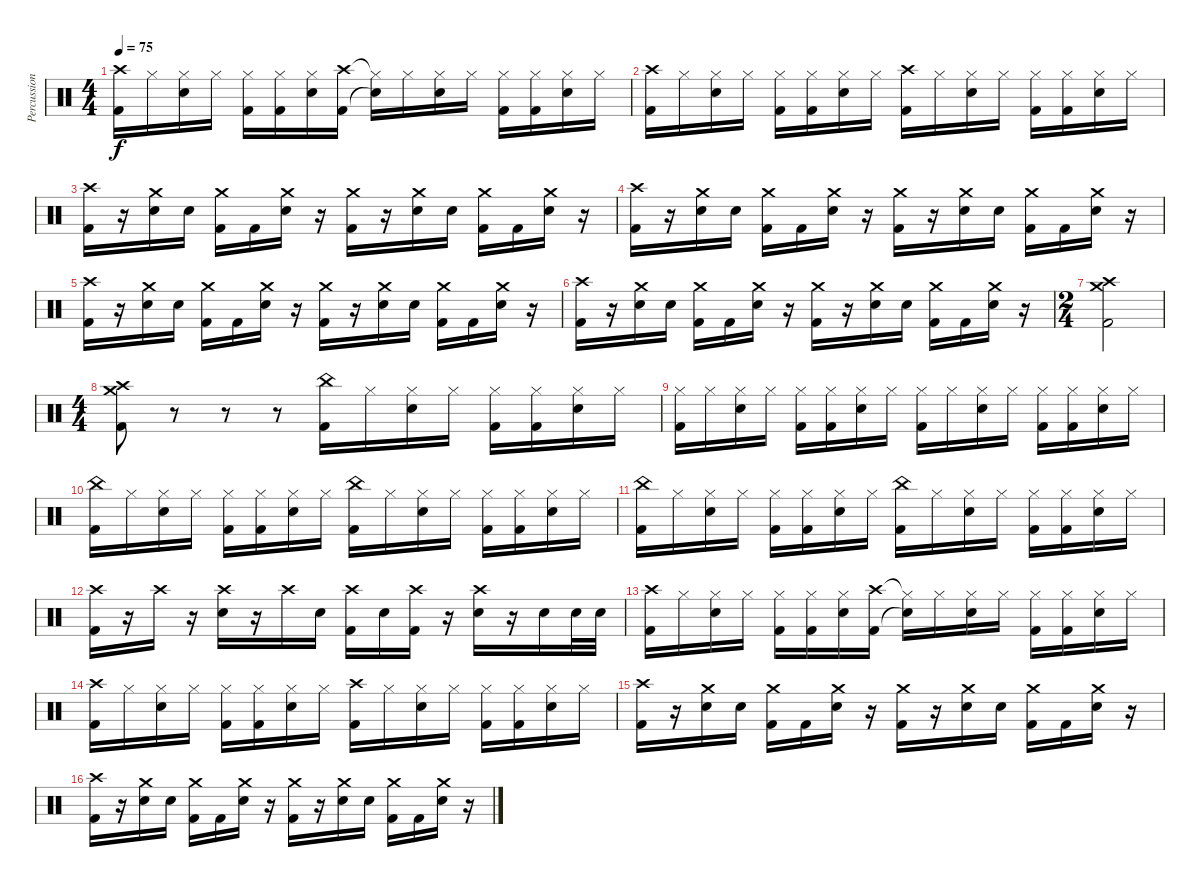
\track ("Percussioni" "Percussion") {instrument percussion}
\staff {score}
\articulation defaults
\ts (4 4)
\tempo 75
\clef neutral
\ks c
("Crash high (hit)" "Kick (hit) 2").16{dy f} "Hi-Hat (closed)".16 ("Hi-Hat (closed)" "Electric Snare (hit)").16 "Hi-Hat (closed)".16 ("Hi-Hat (closed)" "Kick (hit) 2").16 ("Hi-Hat (closed)" "Kick (hit) 2").16 ("Hi-Hat (closed)" "Electric Snare (hit)").16 ("Crash high (hit)" "Kick (hit) 2").16 ("Hi-Hat (closed)"{t} "Snare (hit)"{t}).16 "Hi-Hat (closed)".16 ("Hi-Hat (closed)" "Electric Snare (hit)").16 "Hi-Hat (closed)".16 ("Hi-Hat (closed)" "Kick (hit) 2").16 ("Hi-Hat (closed)" "Kick (hit) 2").16 ("Hi-Hat (closed)" "Electric Snare (hit)").16 "Hi-Hat (closed)".16 |
("Crash high (hit)" "Kick (hit) 2").16 "Hi-Hat (closed)".16 ("Hi-Hat (closed)" "Electric Snare (hit)").16 "Hi-Hat (closed)".16 ("Hi-Hat (closed)" "Kick (hit) 2").16 ("Hi-Hat (closed)" "Kick (hit) 2").16 ("Hi-Hat (closed)" "Electric Snare (hit)").16 "Hi-Hat (closed)".16 ("Crash high (hit)" "Kick (hit) 2").16 "Hi-Hat (closed)".16 ("Hi-Hat (closed)" "Electric Snare (hit)").16 "Hi-Hat (closed)".16 ("Hi-Hat (closed)" "Kick (hit) 2").16 ("Hi-Hat (closed)" "Kick (hit) 2").16 ("Hi-Hat (closed)" "Electric Snare (hit)").16 "Hi-Hat (closed)".16 |
("Crash high (hit)" "Kick (hit) 2").16 r.16 ("Crash medium (hit)" "Electric Snare (hit)").16 "Electric Snare (hit)".16 ("Crash medium (hit)" "Kick (hit) 2").16 "Kick (hit) 2".16 ("Crash medium (hit)" "Electric Snare (hit)").16 r.16 ("Crash medium (hit)" "Kick (hit) 2").16 r.16 ("Crash medium (hit)" "Electric Snare (hit)").16 "Electric Snare (hit)".16 ("Crash medium (hit)" "Kick (hit) 2").16 "Kick (hit) 2".16 ("Crash medium (hit)" "Electric Snare (hit)").16 r.16 |
("Crash high (hit)" "Kick (hit) 2").16 r.16 ("Crash medium (hit)" "Electric Snare (hit)").16 "Electric Snare (hit)".16 ("Crash medium (hit)" "Kick (hit) 2").16 "Kick (hit) 2".16 ("Crash medium (hit)" "Electric Snare (hit)").16 r.16 ("Crash medium (hit)" "Kick (hit) 2").16 r.16 ("Crash medium (hit)" "Electric Snare (hit)").16 "Electric Snare (hit)".16 ("Crash medium (hit)" "Kick (hit) 2").16 "Kick (hit) 2".16 ("Crash medium (hit)" "Electric Snare (hit)").16 r.16 |
("Crash high (hit)" "Kick (hit) 2").16 r.16 ("Crash medium (hit)" "Electric Snare (hit)").16 "Electric Snare (hit)".16 ("Crash medium (hit)" "Kick (hit) 2").16 "Kick (hit) 2".16 ("Crash medium (hit)" "Electric Snare (hit)").16 r.16 ("Crash medium (hit)" "Kick (hit) 2").16 r.16 ("Crash medium (hit)" "Electric Snare (hit)").16 "Electric Snare (hit)".16 ("Crash medium (hit)" "Kick (hit) 2").16 "Kick (hit) 2".16 ("Crash medium (hit)" "Electric Snare (hit)").16 r.16 |
("Crash high (hit)" "Kick (hit) 2").16 r.16 ("Crash medium (hit)" "Electric Snare (hit)").16 "Electric Snare (hit)".16 ("Crash medium (hit)" "Kick (hit) 2").16 "Kick (hit) 2".16 ("Crash medium (hit)" "Electric Snare (hit)").16 r.16 ("Crash medium (hit)" "Kick (hit) 2").16 r.16 ("Crash medium (hit)" "Electric Snare (hit)").16 "Electric Snare (hit)".16 ("Crash medium (hit)" "Kick (hit) 2").16 "Kick (hit) 2".16 ("Crash medium (hit)" "Electric Snare (hit)").16 r.16 |
\ts (2 4)
("Crash medium (hit)" "Crash high (hit)" "Kick (hit) 2").2 |
\ts (4 4)
("Crash high (hit)" "Crash medium (hit)" "Kick (hit) 2").8 r.8 r.8 r.8 ("China (hit)" "Kick (hit) 2").16 "Hi-Hat (closed)".16 ("Hi-Hat (closed)" "Electric Snare (hit)").16 "Hi-Hat (closed)".16 ("Hi-Hat (closed)" "Kick (hit) 2").16 ("Hi-Hat (closed)" "Kick (hit) 2").16 ("Hi-Hat (closed)" "Electric Snare (hit)").16 "Hi-Hat (closed)".16 |
("Hi-Hat (closed)" "Kick (hit) 2").16 "Hi-Hat (closed)".16 ("Hi-Hat (closed)" "Electric Snare (hit)").16 "Hi-Hat (closed)".16 ("Hi-Hat (closed)" "Kick (hit) 2").16 ("Hi-Hat (closed)" "Kick (hit) 2").16 ("Hi-Hat (closed)" "Electric Snare (hit)").16 "Hi-Hat (closed)".16 ("Hi-Hat (closed)" "Kick (hit) 2").16 "Hi-Hat (closed)".16 ("Hi-Hat (closed)" "Electric Snare (hit)").16 "Hi-Hat (closed)".16 ("Hi-Hat (closed)" "Kick (hit) 2").16 ("Hi-Hat (closed)" "Kick (hit) 2").16 ("Hi-Hat (closed)" "Electric Snare (hit)").16 "Hi-Hat (closed)".16 |
("China (hit)" "Kick (hit) 2").16 "Hi-Hat (closed)".16 ("Hi-Hat (closed)" "Electric Snare (hit)").16 "Hi-Hat (closed)".16 ("Hi-Hat (closed)" "Kick (hit) 2").16 ("Hi-Hat (closed)" "Kick (hit) 2").16 ("Hi-Hat (closed)" "Electric Snare (hit)").16 "Hi-Hat (closed)".16 ("China (hit)" "Kick (hit) 2").16 "Hi-Hat (closed)".16 ("Hi-Hat (closed)" "Electric Snare (hit)").16 "Hi-Hat (closed)".16 ("Hi-Hat (closed)" "Kick (hit) 2").16 ("Hi-Hat (closed)" "Kick (hit) 2").16 ("Hi-Hat (closed)" "Electric Snare (hit)").16 "Hi-Hat (closed)".16 |
("China (hit)" "Kick (hit) 2").16 "Hi-Hat (closed)".16 ("Hi-Hat (closed)" "Electric Snare (hit)").16 "Hi-Hat (closed)".16 ("Hi-Hat (closed)" "Kick (hit) 2").16 ("Hi-Hat (closed)" "Kick (hit) 2").16 ("Hi-Hat (closed)" "Electric Snare (hit)").16 "Hi-Hat (closed)".16 ("China (hit)" "Kick (hit) 2").16 "Hi-Hat (closed)".16 ("Hi-Hat (closed)" "Electric Snare (hit)").16 "Hi-Hat (closed)".16 ("Hi-Hat (closed)" "Kick (hit) 2").16 ("Hi-Hat (closed)" "Kick (hit) 2").16 ("Hi-Hat (closed)" "Electric Snare (hit)").16 "Hi-Hat (closed)".16 |
("Crash high (hit)" "Kick (hit) 2").16 r.16 "Crash high (hit)".16 r.16 ("Crash high (hit)" "Electric Snare (hit)").16 r.16 "Crash high (hit)".16 "Electric Snare (hit)".16 ("Crash high (hit)" "Kick (hit) 2").16 "Electric Snare (hit)".16 ("Crash high (hit)" "Kick (hit) 2").16 r.16 ("Crash high (hit)" "Electric Snare (hit)").16 r.16 "Electric Snare (hit)".16 "Electric Snare (hit)".32 "Electric Snare (hit)".32 |
("Crash high (hit)" "Kick (hit) 2").16 "Hi-Hat (closed)".16 ("Hi-Hat (closed)" "Electric Snare (hit)").16 "Hi-Hat (closed)".16 ("Hi-Hat (closed)" "Kick (hit) 2").16 ("Hi-Hat (closed)" "Kick (hit) 2").16 ("Hi-Hat (closed)" "Electric Snare (hit)").16 ("Crash high (hit)" "Kick (hit) 2").16 ("Hi-Hat (closed)"{t} "Snare (hit)"{t}).16 "Hi-Hat (closed)".16 ("Hi-Hat (closed)" "Electric Snare (hit)").16 "Hi-Hat (closed)".16 ("Hi-Hat (closed)" "Kick (hit) 2").16 ("Hi-Hat (closed)" "Kick (hit) 2").16 ("Hi-Hat (closed)" "Electric Snare (hit)").16 "Hi-Hat (closed)".16 |
("Crash high (hit)" "Kick (hit) 2").16 "Hi-Hat (closed)".16 ("Hi-Hat (closed)" "Electric Snare (hit)").16 "Hi-Hat (closed)".16 ("Hi-Hat (closed)" "Kick (hit) 2").16 ("Hi-Hat (closed)" "Kick (hit) 2").16 ("Hi-Hat (closed)" "Electric Snare (hit)").16 "Hi-Hat (closed)".16 ("Crash high (hit)" "Kick (hit) 2").16 "Hi-Hat (closed)".16 ("Hi-Hat (closed)" "Electric Snare (hit)").16 "Hi-Hat (closed)".16 ("Hi-Hat (closed)" "Kick (hit) 2").16 ("Hi-Hat (closed)" "Kick (hit) 2").16 ("Hi-Hat (closed)" "Electric Snare (hit)").16 "Hi-Hat (closed)".16 |
("Crash high (hit)" "Kick (hit) 2").16 r.16 ("Crash medium (hit)" "Electric Snare (hit)").16 "Electric Snare (hit)".16 ("Crash medium (hit)" "Kick (hit) 2").16 "Kick (hit) 2".16 ("Crash medium (hit)" "Electric Snare (hit)").16 r.16 ("Crash medium (hit)" "Kick (hit) 2").16 r.16 ("Crash medium (hit)" "Electric Snare (hit)").16 "Electric Snare (hit)".16 ("Crash medium (hit)" "Kick (hit) 2").16 "Kick (hit) 2".16 ("Crash medium (hit)" "Electric Snare (hit)").16 r.16 |
("Crash high (hit)" "Kick (hit) 2").16 r.16 ("Crash medium (hit)" "Electric Snare (hit)").16 "Electric Snare (hit)".16 ("Crash medium (hit)" "Kick (hit) 2").16 "Kick (hit) 2".16 ("Crash medium (hit)" "Electric Snare (hit)").16 r.16 ("Crash medium (hit)" "Kick (hit) 2").16 r.16 ("Crash medium (hit)" "Electric Snare (hit)").16 "Electric Snare (hit)".16 ("Crash medium (hit)" "Kick (hit) 2").16 "Kick (hit) 2".16 ("Crash medium (hit)" "Electric Snare (hit)").16 r.16
